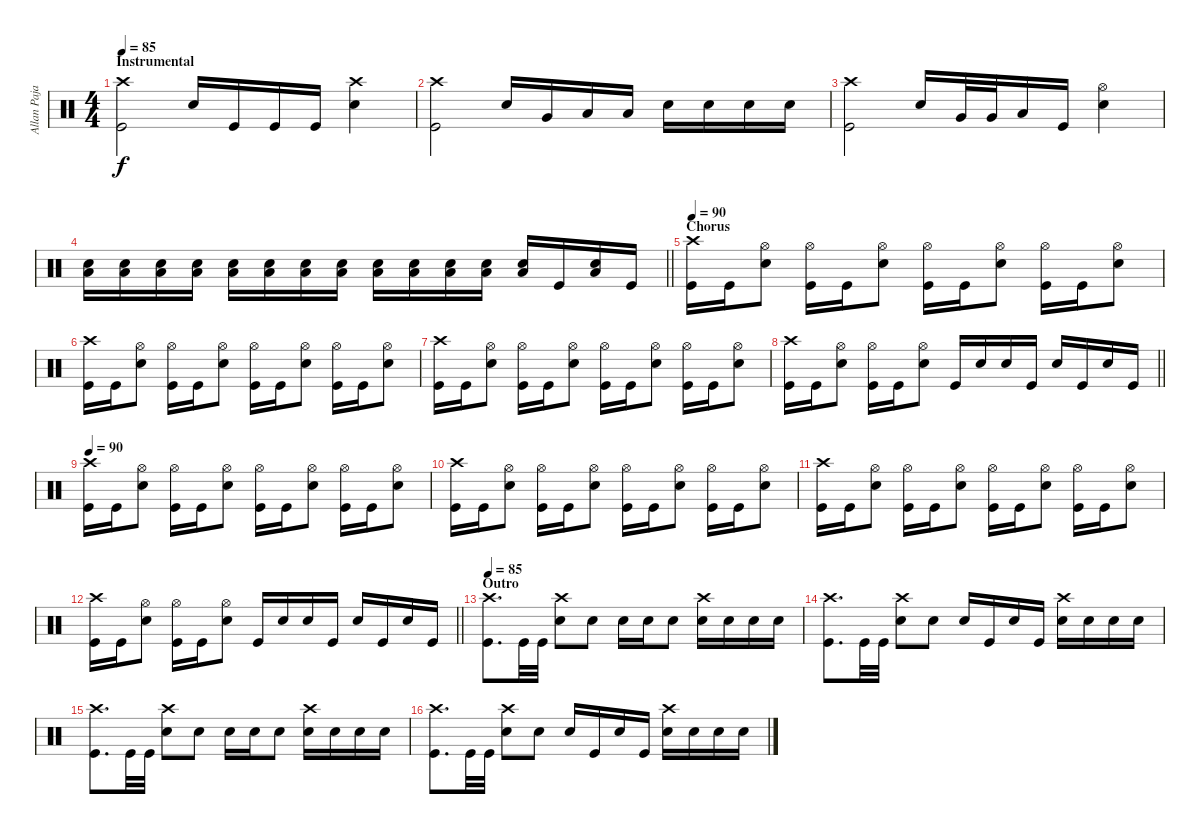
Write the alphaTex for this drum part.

\track ("Allan Pajarin (Drums)" "Allan Paja") {instrument percussion}
\staff {score}
\articulation defaults
\ts (4 4)
\section ("" "Instrumental")
\tempo 85
\clef neutral
\ks c
("Crash high (hit)" "Kick (hit)").2{dy f} "Electric Snare (hit)".16 "Kick (hit)".16 "Kick (hit)".16 "Kick (hit)".16 ("Electric Snare (hit)" "Crash high (hit)").4 |
("Crash high (hit)" "Kick (hit)").2 "Electric Snare (hit)".16 "Very Low Tom (hit)".16 "Low Floor Tom (hit)".16 "Low Floor Tom (hit)".16 "Electric Snare (hit)".16 "Electric Snare (hit)".16 "Electric Snare (hit)".16 "Electric Snare (hit)".16 |
("Crash high (hit)" "Kick (hit)").2 "Electric Snare (hit)".16 "Very Low Tom (hit)".32 "Very Low Tom (hit)".32 "Low Floor Tom (hit)".16 "Kick (hit)".16 ("Electric Snare (hit)" "Hi-Hat (open)").4 |
\barLineRight lightlight
("Low Floor Tom (hit)" "Electric Snare (hit)").16{volume 16} ("Low Floor Tom (hit)" "Electric Snare (hit)").16 ("Low Floor Tom (hit)" "Electric Snare (hit)").16 ("Low Floor Tom (hit)" "Electric Snare (hit)").16 ("Low Floor Tom (hit)" "Electric Snare (hit)").16 ("Low Floor Tom (hit)" "Electric Snare (hit)").16 ("Low Floor Tom (hit)" "Electric Snare (hit)").16 ("Low Floor Tom (hit)" "Electric Snare (hit)").16 ("Low Floor Tom (hit)" "Electric Snare (hit)").16 ("Low Floor Tom (hit)" "Electric Snare (hit)").16 ("Low Floor Tom (hit)" "Electric Snare (hit)").16 ("Low Floor Tom (hit)" "Electric Snare (hit)").16 ("Electric Snare (hit)" "Low Floor Tom (hit)").16 "Kick (hit)".16 ("Electric Snare (hit)" "Low Floor Tom (hit)").16 "Kick (hit)".16 |
\section ("" "Chorus")
\tempo 90
("Kick (hit)" "Crash high (hit)").16 "Kick (hit)".16 ("Hi-Hat (open)" "Electric Snare (hit)").8 ("Kick (hit)" "Hi-Hat (open)").16 "Kick (hit)".16 ("Hi-Hat (open)" "Electric Snare (hit)").8 ("Kick (hit)" "Hi-Hat (open)").16 "Kick (hit)".16 ("Hi-Hat (open)" "Electric Snare (hit)").8 ("Kick (hit)" "Hi-Hat (open)").16 "Kick (hit)".16 ("Hi-Hat (open)" "Electric Snare (hit)").8 |
("Kick (hit)" "Crash high (hit)").16 "Kick (hit)".16 ("Hi-Hat (open)" "Electric Snare (hit)").8 ("Kick (hit)" "Hi-Hat (open)").16 "Kick (hit)".16 ("Hi-Hat (open)" "Electric Snare (hit)").8 ("Kick (hit)" "Hi-Hat (open)").16 "Kick (hit)".16 ("Hi-Hat (open)" "Electric Snare (hit)").8 ("Kick (hit)" "Hi-Hat (open)").16 "Kick (hit)".16 ("Hi-Hat (open)" "Electric Snare (hit)").8 |
("Kick (hit)" "Crash high (hit)").16 "Kick (hit)".16 ("Hi-Hat (open)" "Electric Snare (hit)").8 ("Kick (hit)" "Hi-Hat (open)").16 "Kick (hit)".16 ("Hi-Hat (open)" "Electric Snare (hit)").8 ("Kick (hit)" "Hi-Hat (open)").16 "Kick (hit)".16 ("Hi-Hat (open)" "Electric Snare (hit)").8 ("Kick (hit)" "Hi-Hat (open)").16 "Kick (hit)".16 ("Hi-Hat (open)" "Electric Snare (hit)").8 |
\barLineRight lightlight
("Kick (hit)" "Crash high (hit)").16 "Kick (hit)".16 ("Hi-Hat (open)" "Electric Snare (hit)").8 ("Kick (hit)" "Hi-Hat (open)").16 "Kick (hit)".16 ("Hi-Hat (open)" "Electric Snare (hit)").8 "Kick (hit)".16 "Electric Snare (hit)".16 "Electric Snare (hit)".16 "Kick (hit)".16 "Electric Snare (hit)".16 "Kick (hit)".16 "Electric Snare (hit)".16 "Kick (hit)".16 |
\tempo 90
("Kick (hit)" "Crash high (hit)").16 "Kick (hit)".16 ("Hi-Hat (open)" "Electric Snare (hit)").8 ("Kick (hit)" "Hi-Hat (open)").16 "Kick (hit)".16 ("Hi-Hat (open)" "Electric Snare (hit)").8 ("Kick (hit)" "Hi-Hat (open)").16 "Kick (hit)".16 ("Hi-Hat (open)" "Electric Snare (hit)").8 ("Kick (hit)" "Hi-Hat (open)").16 "Kick (hit)".16 ("Hi-Hat (open)" "Electric Snare (hit)").8 |
("Kick (hit)" "Crash high (hit)").16 "Kick (hit)".16 ("Hi-Hat (open)" "Electric Snare (hit)").8 ("Kick (hit)" "Hi-Hat (open)").16 "Kick (hit)".16 ("Hi-Hat (open)" "Electric Snare (hit)").8 ("Kick (hit)" "Hi-Hat (open)").16 "Kick (hit)".16 ("Hi-Hat (open)" "Electric Snare (hit)").8 ("Kick (hit)" "Hi-Hat (open)").16 "Kick (hit)".16 ("Hi-Hat (open)" "Electric Snare (hit)").8 |
("Kick (hit)" "Crash high (hit)").16 "Kick (hit)".16 ("Hi-Hat (open)" "Electric Snare (hit)").8 ("Kick (hit)" "Hi-Hat (open)").16 "Kick (hit)".16 ("Hi-Hat (open)" "Electric Snare (hit)").8 ("Kick (hit)" "Hi-Hat (open)").16 "Kick (hit)".16 ("Hi-Hat (open)" "Electric Snare (hit)").8 ("Kick (hit)" "Hi-Hat (open)").16 "Kick (hit)".16 ("Hi-Hat (open)" "Electric Snare (hit)").8 |
\barLineRight lightlight
("Kick (hit)" "Crash high (hit)").16 "Kick (hit)".16 ("Hi-Hat (open)" "Electric Snare (hit)").8 ("Kick (hit)" "Hi-Hat (open)").16 "Kick (hit)".16 ("Hi-Hat (open)" "Electric Snare (hit)").8 "Kick (hit)".16 "Electric Snare (hit)".16 "Electric Snare (hit)".16 "Kick (hit)".16 "Electric Snare (hit)".16 "Kick (hit)".16 "Electric Snare (hit)".16 "Kick (hit)".16 |
\section ("" "Outro")
\tempo 85
("Crash high (hit)" "Kick (hit)").8{d volume 13} "Kick (hit)".32 "Kick (hit)".32 ("Crash high (hit)" "Electric Snare (hit)").8 "Electric Snare (hit)".8 "Electric Snare (hit)".16 "Electric Snare (hit)".16 "Electric Snare (hit)".8 ("Electric Snare (hit)" "Crash high (hit)").16 "Electric Snare (hit)".16 "Electric Snare (hit)".16 "Electric Snare (hit)".16 |
("Crash high (hit)" "Kick (hit)").8{d} "Kick (hit)".32 "Kick (hit)".32 ("Crash high (hit)" "Electric Snare (hit)").8 "Electric Snare (hit)".8 "Electric Snare (hit)".16 "Kick (hit)".16 "Electric Snare (hit)".16 "Kick (hit)".16 ("Electric Snare (hit)" "Crash high (hit)").16 "Electric Snare (hit)".16 "Electric Snare (hit)".16 "Electric Snare (hit)".16 |
("Crash high (hit)" "Kick (hit)").8{d} "Kick (hit)".32 "Kick (hit)".32 ("Crash high (hit)" "Electric Snare (hit)").8 "Electric Snare (hit)".8 "Electric Snare (hit)".16 "Electric Snare (hit)".16 "Electric Snare (hit)".8 ("Electric Snare (hit)" "Crash high (hit)").16 "Electric Snare (hit)".16 "Electric Snare (hit)".16 "Electric Snare (hit)".16 |
("Crash high (hit)" "Kick (hit)").8{d} "Kick (hit)".32 "Kick (hit)".32 ("Crash high (hit)" "Electric Snare (hit)").8 "Electric Snare (hit)".8 "Electric Snare (hit)".16 "Kick (hit)".16 "Electric Snare (hit)".16 "Kick (hit)".16 ("Electric Snare (hit)" "Crash high (hit)").16 "Electric Snare (hit)".16 "Electric Snare (hit)".16 "Electric Snare (hit)".16
